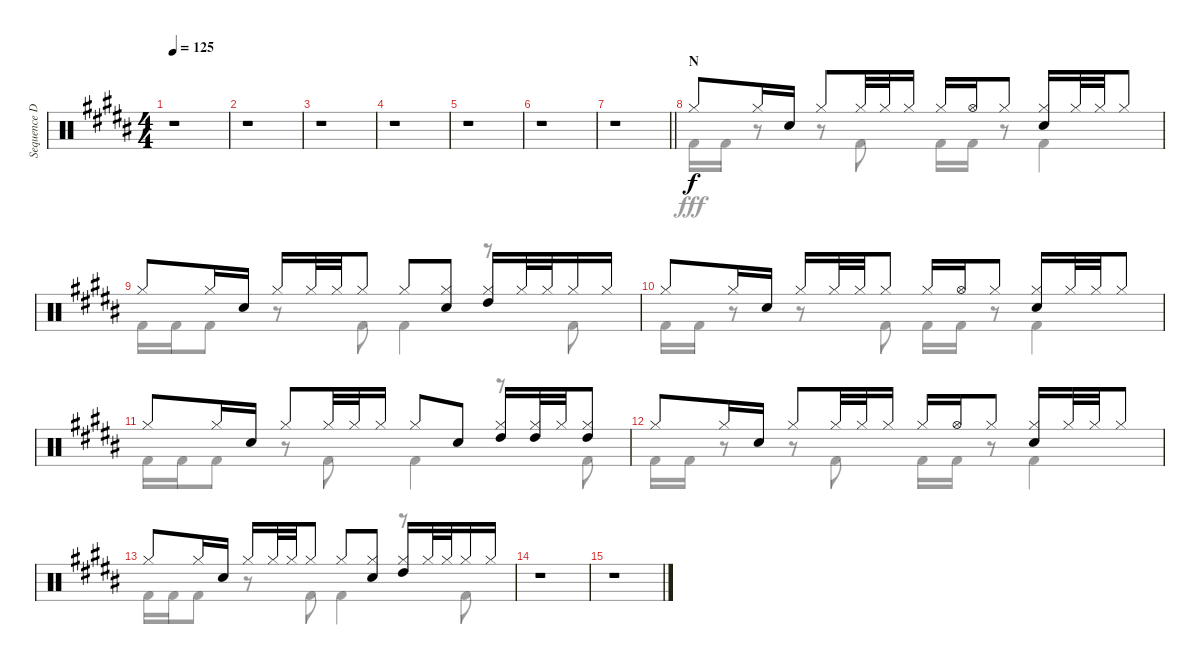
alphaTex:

\track ("Sequence Drums" "Sequence D") {instrument percussion}
\staff {score}
\articulation defaults
\voice
\ts (4 4)
\tempo 125
\clef neutral
\ks b
r.1{dy f} |
r.1 |
r.1 |
r.1 |
r.1 |
r.1 |
\barLineRight lightlight
r.1 |
\section ("" "N")
"Hi-Hat (closed)".8 "Hi-Hat (closed)".16 "Snare (hit) 2".16 "Hi-Hat (closed)".8 "Hi-Hat (closed)".32 "Hi-Hat (closed)".32 "Hi-Hat (closed)".16 "Hi-Hat (closed)".16 "Hi-Hat (open)".16 "Hi-Hat (closed)".8 ("Hi-Hat (closed)" "Snare (hit) 2").16 "Hi-Hat (closed)".32 "Hi-Hat (closed)".32 "Hi-Hat (closed)".8 |
"Hi-Hat (closed)".8 "Hi-Hat (closed)".16 "Snare (hit) 2".16 "Hi-Hat (closed)".16 "Hi-Hat (closed)".32 "Hi-Hat (closed)".32 "Hi-Hat (closed)".8 "Hi-Hat (closed)".8 ("Hi-Hat (closed)" "Snare (hit) 2").8 ("Hi-Hat (closed)" "High Tom (hit)").16 "Hi-Hat (closed)".32 "Hi-Hat (closed)".32 "Hi-Hat (closed)".16 "Hi-Hat (closed)".16 |
"Hi-Hat (closed)".8 "Hi-Hat (closed)".16 "Snare (hit) 2".16 "Hi-Hat (closed)".16 "Hi-Hat (closed)".32 "Hi-Hat (closed)".32 "Hi-Hat (closed)".8 "Hi-Hat (closed)".16 "Hi-Hat (open)".16 "Hi-Hat (closed)".8 ("Hi-Hat (closed)" "Snare (hit) 2").16 "Hi-Hat (closed)".32 "Hi-Hat (closed)".32 "Hi-Hat (closed)".8 |
"Hi-Hat (closed)".8 "Hi-Hat (closed)".16 "Snare (hit) 2".16 "Hi-Hat (closed)".8 "Hi-Hat (closed)".32 "Hi-Hat (closed)".32 "Hi-Hat (closed)".16 "Hi-Hat (closed)".8 "Snare (hit) 2".8 ("Hi-Hat (closed)" "High Tom (hit)").16 ("Hi-Hat (closed)" "High Tom (hit)").32 "Hi-Hat (closed)".32 ("Hi-Hat (closed)" "High Tom (hit)").8 |
"Hi-Hat (closed)".8 "Hi-Hat (closed)".16 "Snare (hit) 2".16 "Hi-Hat (closed)".8 "Hi-Hat (closed)".32 "Hi-Hat (closed)".32 "Hi-Hat (closed)".16 "Hi-Hat (closed)".16 "Hi-Hat (open)".16 "Hi-Hat (closed)".8 ("Hi-Hat (closed)" "Snare (hit) 2").16 "Hi-Hat (closed)".32 "Hi-Hat (closed)".32 "Hi-Hat (closed)".8 |
"Hi-Hat (closed)".8 "Hi-Hat (closed)".16 "Snare (hit) 2".16 "Hi-Hat (closed)".16 "Hi-Hat (closed)".32 "Hi-Hat (closed)".32 "Hi-Hat (closed)".8 "Hi-Hat (closed)".8 ("Hi-Hat (closed)" "Snare (hit) 2").8 ("Hi-Hat (closed)" "High Tom (hit)").16 "Hi-Hat (closed)".32 "Hi-Hat (closed)".32 "Hi-Hat (closed)".16 "Hi-Hat (closed)".16 |
r.1 |
r.1
\voice
\clef neutral
\ottava regular
\simile none
\ks b
r.1{dy fff} |
r.1 |
r.1 |
r.1 |
r.1 |
r.1 |
\barLineRight lightlight
r.1 |
"Kick (hit) 2".16 "Kick (hit) 2".16 r.8 r.8 "Kick (hit) 2".8 "Kick (hit) 2".16 "Kick (hit) 2".16 r.8 "Kick (hit) 2".4 |
"Kick (hit) 2".16 "Kick (hit) 2".16 "Kick (hit) 2".8 r.8 "Kick (hit) 2".8 "Kick (hit) 2".4 r.8 "Kick (hit) 2".8 |
"Kick (hit) 2".16 "Kick (hit) 2".16 r.8 r.8 "Kick (hit) 2".8 "Kick (hit) 2".16 "Kick (hit) 2".16 r.8 "Kick (hit) 2".4 |
"Kick (hit) 2".16 "Kick (hit) 2".16 "Kick (hit) 2".8 r.8 "Kick (hit) 2".8 "Kick (hit) 2".4 r.8 "Kick (hit) 2".8 |
"Kick (hit) 2".16 "Kick (hit) 2".16 r.8 r.8 "Kick (hit) 2".8 "Kick (hit) 2".16 "Kick (hit) 2".16 r.8 "Kick (hit) 2".4 |
"Kick (hit) 2".16 "Kick (hit) 2".16 "Kick (hit) 2".8 r.8 "Kick (hit) 2".8 "Kick (hit) 2".4 r.8 "Kick (hit) 2".8 |
r.1 |
r.1
